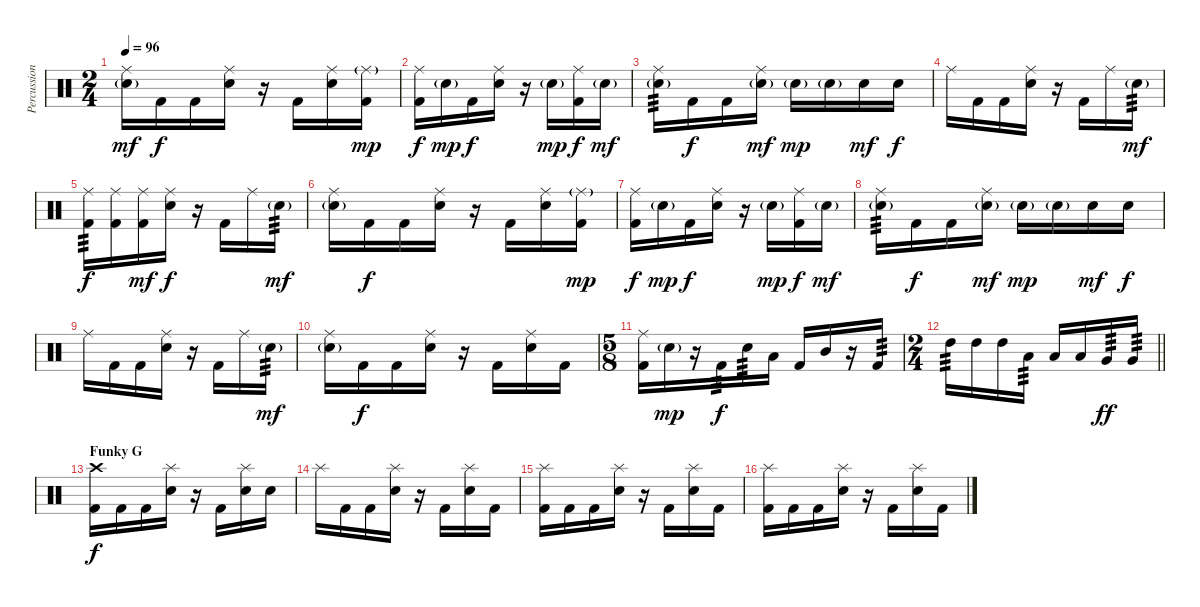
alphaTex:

\track ("Percussion" "Percussion") {instrument percussion}
\staff {score}
\articulation defaults
\ts (2 4)
\tempo 96
\clef neutral
\ks c
("Ride (middle)" "Snare (hit) 2"{g}).16{dy mf} "Kick (hit) 2".16{dy f} "Kick (hit) 2".16 ("Ride (middle)" "Snare (hit) 2").16 r.16 "Kick (hit) 2".16 ("Ride (middle)" "Snare (hit) 2").16 ("Ride (middle)"{g} "Kick (hit) 2").16{dy mp} |
("Ride (middle)" "Kick (hit) 2").16{dy f} "Snare (hit) 2"{g}.16{dy mp} "Kick (hit) 2".16{dy f} ("Ride (middle)" "Snare (hit) 2").16 r.16 "Snare (hit) 2"{g}.16{dy mp} ("Ride (middle)" "Kick (hit) 2").16{dy f} "Snare (hit) 2"{g}.16{dy mf} |
("Ride (middle)" "Snare (hit) 2"{g}).16{tp 3} "Kick (hit) 2".16{dy f} "Kick (hit) 2".16 ("Ride (middle)" "Snare (hit) 2"{g}).16{dy mf} "Snare (hit) 2"{g}.16{dy mp} "Snare (hit) 2"{g}.16 "Snare (hit) 2".16{dy mf} "Snare (hit) 2".16{dy f} |
"Ride (middle)".16 "Kick (hit) 2".16 "Kick (hit) 2".16 ("Ride (middle)" "Snare (hit) 2").16 r.16 "Kick (hit) 2".16 "Ride (middle)".16 "Snare (hit) 2"{g}.16{tp 3 dy mf} |
("Ride (middle)" "Kick (hit) 2").16{tp 3 dy f} ("Ride (middle)" "Kick (hit) 2").16 ("Ride (middle)" "Kick (hit) 2").16{dy mf} ("Ride (middle)" "Snare (hit) 2").16{dy f} r.16 "Kick (hit) 2".16 "Ride (middle)".16 "Snare (hit) 2"{g}.16{tp 3 dy mf} |
("Ride (middle)" "Snare (hit) 2"{g}).16 "Kick (hit) 2".16{dy f} "Kick (hit) 2".16 ("Ride (middle)" "Snare (hit) 2").16 r.16 "Kick (hit) 2".16 ("Ride (middle)" "Snare (hit) 2").16 ("Ride (middle)"{g} "Kick (hit) 2").16{dy mp} |
("Ride (middle)" "Kick (hit) 2").16{dy f} "Snare (hit) 2"{g}.16{dy mp} "Kick (hit) 2".16{dy f} ("Ride (middle)" "Snare (hit) 2").16 r.16 "Snare (hit) 2"{g}.16{dy mp} ("Ride (middle)" "Kick (hit) 2").16{dy f} "Snare (hit) 2"{g}.16{dy mf} |
("Ride (middle)" "Snare (hit) 2"{g}).16{tp 3} "Kick (hit) 2".16{dy f} "Kick (hit) 2".16 ("Ride (middle)" "Snare (hit) 2"{g}).16{dy mf} "Snare (hit) 2"{g}.16{dy mp} "Snare (hit) 2"{g}.16 "Snare (hit) 2".16{dy mf} "Snare (hit) 2".16{dy f} |
"Ride (middle)".16 "Kick (hit) 2".16 "Kick (hit) 2".16 ("Ride (middle)" "Snare (hit) 2").16 r.16 "Kick (hit) 2".16 "Ride (middle)".16 "Snare (hit) 2"{g}.16{tp 3 dy mf} |
("Ride (middle)" "Snare (hit) 2"{g}).16 "Kick (hit) 2".16{dy f} "Kick (hit) 2".16 ("Ride (middle)" "Snare (hit) 2").16 r.16 "Kick (hit) 2".16 ("Ride (middle)" "Snare (hit) 2").16 "Kick (hit) 2".16 |
\ts (5 8)
("Ride (middle)" "Kick (hit) 2").16 "Snare (hit) 2"{g}.16{dy mp} r.16 "Kick (hit) 2".16{tp 3 dy f} "Snare (hit) 2".16{tp 3} "Low Tom (hit)".16 "Kick (hit) 2".16 "Mid Tom (hit)".16 r.16 "Kick (hit) 2".16{tp 3} |
\ts (2 4)
\barLineRight lightlight "High Tom (hit)".16{tp 3} "High Tom (hit)".16 "High Tom (hit)".16 "Low Tom (hit)".16{tp 3} "Low Tom (hit)".16 "Low Tom (hit)".16 "Very Low Tom (hit)".16{tp 3 dy ff} "Very Low Tom (hit)".16{tp 3}
|
\section ("" "Funky G")
("Crash high (hit)" "Kick (hit) 2").16{dy f} "Kick (hit) 2".16 "Kick (hit) 2".16 ("Splash (hit)" "Snare (hit) 2").16 r.16 "Kick (hit) 2".16 ("Splash (hit)" "Snare (hit) 2").16 "Snare (hit) 2".16 |
"Splash (hit)".16 "Kick (hit) 2".16 "Kick (hit) 2".16 ("Splash (hit)" "Snare (hit) 2").16 r.16 "Kick (hit) 2".16 ("Splash (hit)" "Snare (hit) 2").16 "Kick (hit) 2".16 |
("Splash (hit)" "Kick (hit) 2").16 "Kick (hit) 2".16 "Kick (hit) 2".16 ("Splash (hit)" "Snare (hit) 2").16 r.16 "Kick (hit) 2".16 ("Splash (hit)" "Snare (hit) 2").16 "Kick (hit) 2".16 |
("Splash (hit)" "Kick (hit) 2").16 "Kick (hit) 2".16 "Kick (hit) 2".16 ("Splash (hit)" "Snare (hit) 2").16 r.16 "Kick (hit) 2".16 ("Splash (hit)" "Snare (hit) 2").16 "Kick (hit) 2".16
